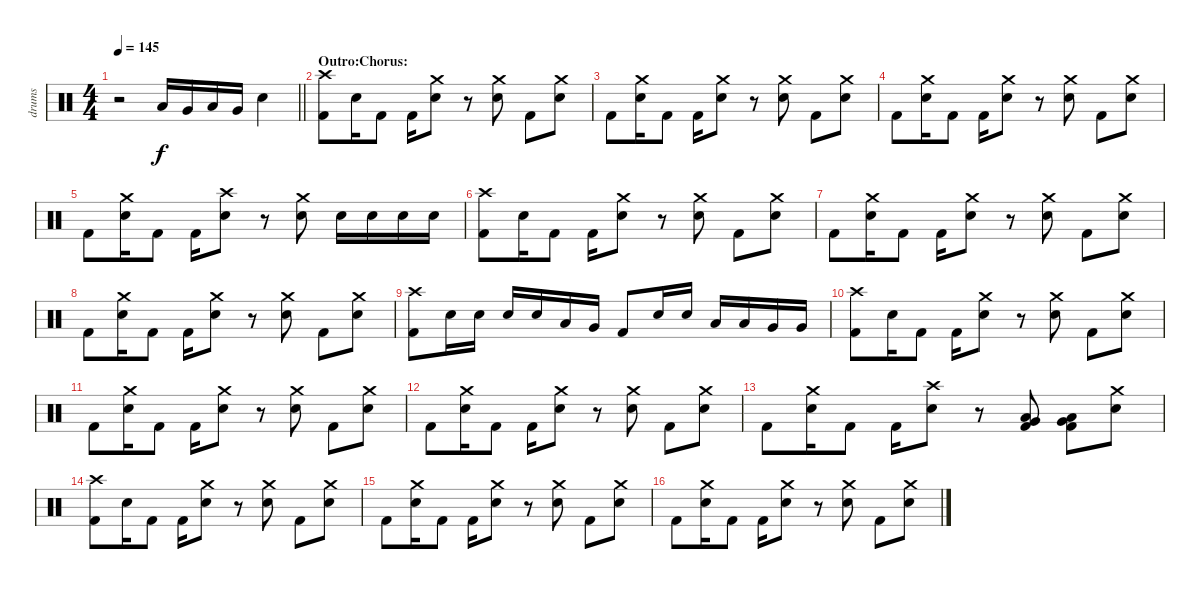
\track ("drums" "drums") {instrument percussion}
\staff {score}
\articulation defaults
\ts (4 4)
\tempo 145
\clef neutral
\barLineRight lightlight
\ks c
r.2{dy f} "Low Tom (hit)".16 "Very Low Tom (hit)".16 "Low Floor Tom (hit)".16 "Very Low Tom (hit)".16 "Electric Snare (hit)".4 |
\section ("" "Outro:Chorus:")
("Crash high (hit)" "Kick (hit) 2").8 "Electric Snare (hit)".16 "Kick (hit) 2".8 "Kick (hit) 2".16 ("Crash medium (hit)" "Electric Snare (hit)").8 r.8 ("Crash medium (hit)" "Electric Snare (hit)").8 "Kick (hit) 2".8 ("Crash medium (hit)" "Electric Snare (hit)").8 |
"Kick (hit) 2".8 ("Crash medium (hit)" "Electric Snare (hit)").16 "Kick (hit) 2".8 "Kick (hit) 2".16 ("Crash medium (hit)" "Electric Snare (hit)").8 r.8 ("Crash medium (hit)" "Electric Snare (hit)").8 "Kick (hit) 2".8 ("Crash medium (hit)" "Electric Snare (hit)").8 |
"Kick (hit) 2".8 ("Crash medium (hit)" "Electric Snare (hit)").16 "Kick (hit) 2".8 "Kick (hit) 2".16 ("Crash medium (hit)" "Electric Snare (hit)").8 r.8 ("Crash medium (hit)" "Electric Snare (hit)").8 "Kick (hit) 2".8 ("Crash medium (hit)" "Electric Snare (hit)").8 |
"Kick (hit) 2".8 ("Crash medium (hit)" "Electric Snare (hit)").16 "Kick (hit) 2".8 "Kick (hit) 2".16 ("Crash high (hit)" "Electric Snare (hit)").8 r.8 ("Crash medium (hit)" "Electric Snare (hit)").8 "Electric Snare (hit)".16 "Electric Snare (hit)".16 "Electric Snare (hit)".16 "Electric Snare (hit)".16 |
("Crash high (hit)" "Kick (hit) 2").8 "Electric Snare (hit)".16 "Kick (hit) 2".8 "Kick (hit) 2".16 ("Crash medium (hit)" "Electric Snare (hit)").8 r.8 ("Crash medium (hit)" "Electric Snare (hit)").8 "Kick (hit) 2".8 ("Crash medium (hit)" "Electric Snare (hit)").8 |
"Kick (hit) 2".8 ("Crash medium (hit)" "Electric Snare (hit)").16 "Kick (hit) 2".8 "Kick (hit) 2".16 ("Crash medium (hit)" "Electric Snare (hit)").8 r.8 ("Crash medium (hit)" "Electric Snare (hit)").8 "Kick (hit) 2".8 ("Crash medium (hit)" "Electric Snare (hit)").8 |
"Kick (hit) 2".8 ("Crash medium (hit)" "Electric Snare (hit)").16 "Kick (hit) 2".8 "Kick (hit) 2".16 ("Crash medium (hit)" "Electric Snare (hit)").8 r.8 ("Crash medium (hit)" "Electric Snare (hit)").8 "Kick (hit) 2".8 ("Crash medium (hit)" "Electric Snare (hit)").8 |
("Crash high (hit)" "Kick (hit) 2").8 "Electric Snare (hit)".16 "Electric Snare (hit)".16 "Electric Snare (hit)".16 "Electric Snare (hit)".16 "Low Tom (hit)".16 "Very Low Tom (hit)".16 "Kick (hit) 2".8 "Electric Snare (hit)".16 "Electric Snare (hit)".16 "Low Tom (hit)".16 "Low Tom (hit)".16 "Very Low Tom (hit)".16 "Very Low Tom (hit)".16 |
("Crash high (hit)" "Kick (hit) 2").8 "Electric Snare (hit)".16 "Kick (hit) 2".8 "Kick (hit) 2".16 ("Crash medium (hit)" "Electric Snare (hit)").8 r.8 ("Crash medium (hit)" "Electric Snare (hit)").8 "Kick (hit) 2".8 ("Crash medium (hit)" "Electric Snare (hit)").8 |
"Kick (hit) 2".8 ("Crash medium (hit)" "Electric Snare (hit)").16 "Kick (hit) 2".8 "Kick (hit) 2".16 ("Crash medium (hit)" "Electric Snare (hit)").8 r.8 ("Crash medium (hit)" "Electric Snare (hit)").8 "Kick (hit) 2".8 ("Crash medium (hit)" "Electric Snare (hit)").8 |
"Kick (hit) 2".8 ("Crash medium (hit)" "Electric Snare (hit)").16 "Kick (hit) 2".8 "Kick (hit) 2".16 ("Crash medium (hit)" "Electric Snare (hit)").8 r.8 ("Crash medium (hit)" "Electric Snare (hit)").8 "Kick (hit) 2".8 ("Crash medium (hit)" "Electric Snare (hit)").8 |
"Kick (hit) 2".8 ("Crash medium (hit)" "Electric Snare (hit)").16 "Kick (hit) 2".8 "Kick (hit) 2".16 ("Crash high (hit)" "Electric Snare (hit)").8 r.8 ("Very Low Tom (hit)" "Low Floor Tom (hit)" "Kick (hit) 2").8 ("Very Low Tom (hit)" "Low Floor Tom (hit)" "Kick (hit) 2").8 ("Crash medium (hit)" "Electric Snare (hit)").8 |
("Crash high (hit)" "Kick (hit) 2").8 "Electric Snare (hit)".16 "Kick (hit) 2".8 "Kick (hit) 2".16 ("Crash medium (hit)" "Electric Snare (hit)").8 r.8 ("Crash medium (hit)" "Electric Snare (hit)").8 "Kick (hit) 2".8 ("Crash medium (hit)" "Electric Snare (hit)").8 |
"Kick (hit) 2".8 ("Crash medium (hit)" "Electric Snare (hit)").16 "Kick (hit) 2".8 "Kick (hit) 2".16 ("Crash medium (hit)" "Electric Snare (hit)").8 r.8 ("Crash medium (hit)" "Electric Snare (hit)").8 "Kick (hit) 2".8 ("Crash medium (hit)" "Electric Snare (hit)").8 |
"Kick (hit) 2".8 ("Crash medium (hit)" "Electric Snare (hit)").16 "Kick (hit) 2".8 "Kick (hit) 2".16 ("Crash medium (hit)" "Electric Snare (hit)").8 r.8 ("Crash medium (hit)" "Electric Snare (hit)").8 "Kick (hit) 2".8 ("Crash medium (hit)" "Electric Snare (hit)").8
